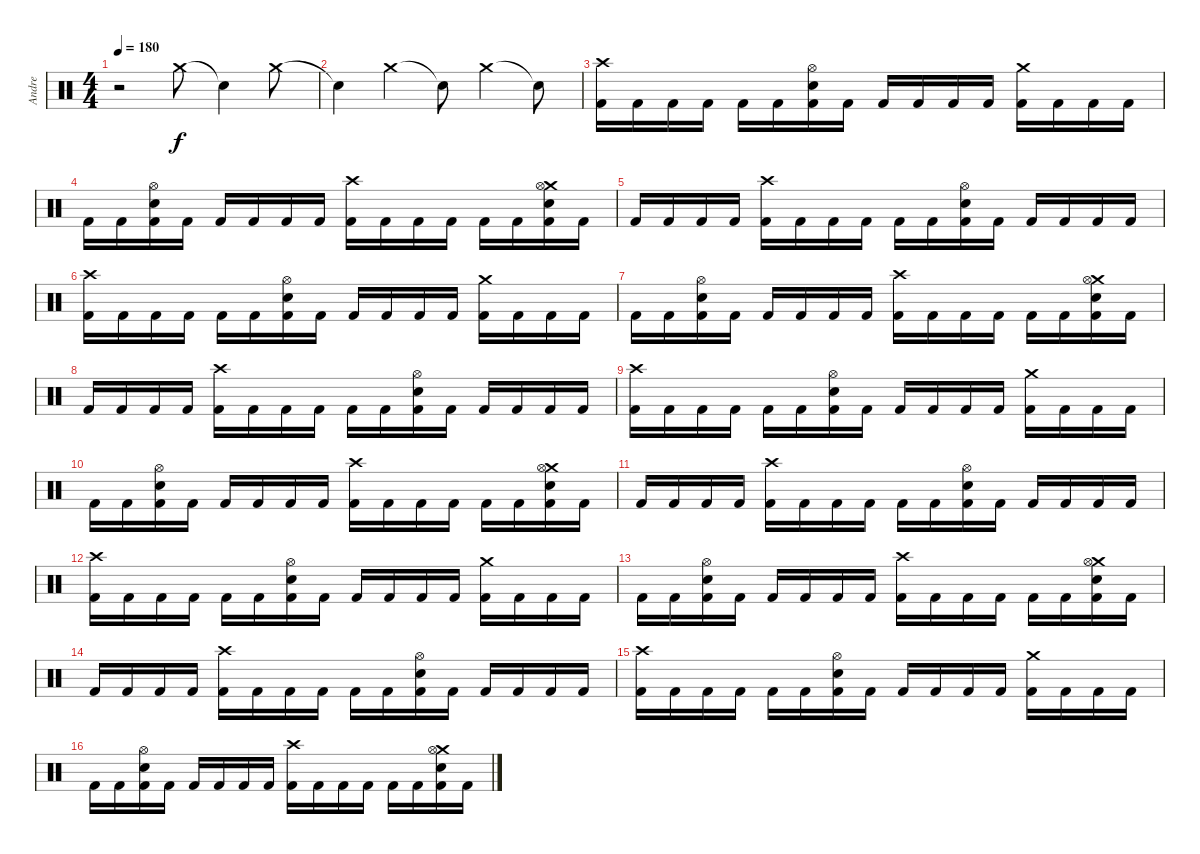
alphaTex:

\track ("Andre" "Andre") {instrument percussion}
\staff {score}
\articulation defaults
\ts (4 4)
\tempo 180
\clef neutral
\ks c
r.2{dy f} "Crash medium (hit)".8 "Snare (hit)"{t}.4 "Crash medium (hit)".8 |
"Snare (hit)"{t}.4 "Crash medium (hit)".4 "Snare (hit)"{t}.8 "Crash medium (hit)".4 "Snare (hit)"{t}.8 |
("Crash high (hit)" "Kick (hit) 2").16 "Kick (hit) 2".16 "Kick (hit) 2".16 "Kick (hit) 2".16 "Kick (hit) 2".16 "Kick (hit) 2".16 ("Hi-Hat (open)" "Snare (hit) 2" "Kick (hit) 2").16 "Kick (hit) 2".16 "Kick (hit) 2".16 "Kick (hit) 2".16 "Kick (hit) 2".16 "Kick (hit) 2".16 ("Crash medium (hit)" "Kick (hit) 2").16 "Kick (hit) 2".16 "Kick (hit) 2".16 "Kick (hit) 2".16 |
"Kick (hit) 2".16 "Kick (hit) 2".16 ("Hi-Hat (open)" "Snare (hit) 2" "Kick (hit) 2").16 "Kick (hit) 2".16 "Kick (hit) 2".16 "Kick (hit) 2".16 "Kick (hit) 2".16 "Kick (hit) 2".16 ("Crash high (hit)" "Kick (hit) 2").16 "Kick (hit) 2".16 "Kick (hit) 2".16 "Kick (hit) 2".16 "Kick (hit) 2".16 "Kick (hit) 2".16 ("Crash medium (hit)" "Hi-Hat (open)" "Snare (hit) 2" "Kick (hit) 2").16 "Kick (hit) 2".16 |
"Kick (hit) 2".16 "Kick (hit) 2".16 "Kick (hit) 2".16 "Kick (hit) 2".16 ("Crash high (hit)" "Kick (hit) 2").16 "Kick (hit) 2".16 "Kick (hit) 2".16 "Kick (hit) 2".16 "Kick (hit) 2".16 "Kick (hit) 2".16 ("Hi-Hat (open)" "Snare (hit) 2" "Kick (hit) 2").16 "Kick (hit) 2".16 "Kick (hit) 2".16 "Kick (hit) 2".16 "Kick (hit) 2".16 "Kick (hit) 2".16 |
("Crash high (hit)" "Kick (hit) 2").16 "Kick (hit) 2".16 "Kick (hit) 2".16 "Kick (hit) 2".16 "Kick (hit) 2".16 "Kick (hit) 2".16 ("Hi-Hat (open)" "Snare (hit) 2" "Kick (hit) 2").16 "Kick (hit) 2".16 "Kick (hit) 2".16 "Kick (hit) 2".16 "Kick (hit) 2".16 "Kick (hit) 2".16 ("Crash medium (hit)" "Kick (hit) 2").16 "Kick (hit) 2".16 "Kick (hit) 2".16 "Kick (hit) 2".16 |
"Kick (hit) 2".16 "Kick (hit) 2".16 ("Hi-Hat (open)" "Snare (hit) 2" "Kick (hit) 2").16 "Kick (hit) 2".16 "Kick (hit) 2".16 "Kick (hit) 2".16 "Kick (hit) 2".16 "Kick (hit) 2".16 ("Crash high (hit)" "Kick (hit) 2").16 "Kick (hit) 2".16 "Kick (hit) 2".16 "Kick (hit) 2".16 "Kick (hit) 2".16 "Kick (hit) 2".16 ("Crash medium (hit)" "Hi-Hat (open)" "Snare (hit) 2" "Kick (hit) 2").16 "Kick (hit) 2".16 |
"Kick (hit) 2".16 "Kick (hit) 2".16 "Kick (hit) 2".16 "Kick (hit) 2".16 ("Crash high (hit)" "Kick (hit) 2").16 "Kick (hit) 2".16 "Kick (hit) 2".16 "Kick (hit) 2".16 "Kick (hit) 2".16 "Kick (hit) 2".16 ("Hi-Hat (open)" "Snare (hit) 2" "Kick (hit) 2").16 "Kick (hit) 2".16 "Kick (hit) 2".16 "Kick (hit) 2".16 "Kick (hit) 2".16 "Kick (hit) 2".16 |
("Crash high (hit)" "Kick (hit) 2").16 "Kick (hit) 2".16 "Kick (hit) 2".16 "Kick (hit) 2".16 "Kick (hit) 2".16 "Kick (hit) 2".16 ("Hi-Hat (open)" "Snare (hit) 2" "Kick (hit) 2").16 "Kick (hit) 2".16 "Kick (hit) 2".16 "Kick (hit) 2".16 "Kick (hit) 2".16 "Kick (hit) 2".16 ("Crash medium (hit)" "Kick (hit) 2").16 "Kick (hit) 2".16 "Kick (hit) 2".16 "Kick (hit) 2".16 |
"Kick (hit) 2".16 "Kick (hit) 2".16 ("Hi-Hat (open)" "Snare (hit) 2" "Kick (hit) 2").16 "Kick (hit) 2".16 "Kick (hit) 2".16 "Kick (hit) 2".16 "Kick (hit) 2".16 "Kick (hit) 2".16 ("Crash high (hit)" "Kick (hit) 2").16 "Kick (hit) 2".16 "Kick (hit) 2".16 "Kick (hit) 2".16 "Kick (hit) 2".16 "Kick (hit) 2".16 ("Crash medium (hit)" "Hi-Hat (open)" "Snare (hit) 2" "Kick (hit) 2").16 "Kick (hit) 2".16 |
"Kick (hit) 2".16 "Kick (hit) 2".16 "Kick (hit) 2".16 "Kick (hit) 2".16 ("Crash high (hit)" "Kick (hit) 2").16 "Kick (hit) 2".16 "Kick (hit) 2".16 "Kick (hit) 2".16 "Kick (hit) 2".16 "Kick (hit) 2".16 ("Hi-Hat (open)" "Snare (hit) 2" "Kick (hit) 2").16 "Kick (hit) 2".16 "Kick (hit) 2".16 "Kick (hit) 2".16 "Kick (hit) 2".16 "Kick (hit) 2".16 |
("Crash high (hit)" "Kick (hit) 2").16 "Kick (hit) 2".16 "Kick (hit) 2".16 "Kick (hit) 2".16 "Kick (hit) 2".16 "Kick (hit) 2".16 ("Hi-Hat (open)" "Snare (hit) 2" "Kick (hit) 2").16 "Kick (hit) 2".16 "Kick (hit) 2".16 "Kick (hit) 2".16 "Kick (hit) 2".16 "Kick (hit) 2".16 ("Crash medium (hit)" "Kick (hit) 2").16 "Kick (hit) 2".16 "Kick (hit) 2".16 "Kick (hit) 2".16 |
"Kick (hit) 2".16 "Kick (hit) 2".16 ("Hi-Hat (open)" "Snare (hit) 2" "Kick (hit) 2").16 "Kick (hit) 2".16 "Kick (hit) 2".16 "Kick (hit) 2".16 "Kick (hit) 2".16 "Kick (hit) 2".16 ("Crash high (hit)" "Kick (hit) 2").16 "Kick (hit) 2".16 "Kick (hit) 2".16 "Kick (hit) 2".16 "Kick (hit) 2".16 "Kick (hit) 2".16 ("Crash medium (hit)" "Hi-Hat (open)" "Snare (hit) 2" "Kick (hit) 2").16 "Kick (hit) 2".16 |
"Kick (hit) 2".16 "Kick (hit) 2".16 "Kick (hit) 2".16 "Kick (hit) 2".16 ("Crash high (hit)" "Kick (hit) 2").16 "Kick (hit) 2".16 "Kick (hit) 2".16 "Kick (hit) 2".16 "Kick (hit) 2".16 "Kick (hit) 2".16 ("Hi-Hat (open)" "Snare (hit) 2" "Kick (hit) 2").16 "Kick (hit) 2".16 "Kick (hit) 2".16 "Kick (hit) 2".16 "Kick (hit) 2".16 "Kick (hit) 2".16 |
("Crash high (hit)" "Kick (hit) 2").16 "Kick (hit) 2".16 "Kick (hit) 2".16 "Kick (hit) 2".16 "Kick (hit) 2".16 "Kick (hit) 2".16 ("Hi-Hat (open)" "Snare (hit) 2" "Kick (hit) 2").16 "Kick (hit) 2".16 "Kick (hit) 2".16 "Kick (hit) 2".16 "Kick (hit) 2".16 "Kick (hit) 2".16 ("Crash medium (hit)" "Kick (hit) 2").16 "Kick (hit) 2".16 "Kick (hit) 2".16 "Kick (hit) 2".16 |
"Kick (hit) 2".16 "Kick (hit) 2".16 ("Hi-Hat (open)" "Snare (hit) 2" "Kick (hit) 2").16 "Kick (hit) 2".16 "Kick (hit) 2".16 "Kick (hit) 2".16 "Kick (hit) 2".16 "Kick (hit) 2".16 ("Crash high (hit)" "Kick (hit) 2").16 "Kick (hit) 2".16 "Kick (hit) 2".16 "Kick (hit) 2".16 "Kick (hit) 2".16 "Kick (hit) 2".16 ("Crash medium (hit)" "Hi-Hat (open)" "Snare (hit) 2" "Kick (hit) 2").16 "Kick (hit) 2".16
